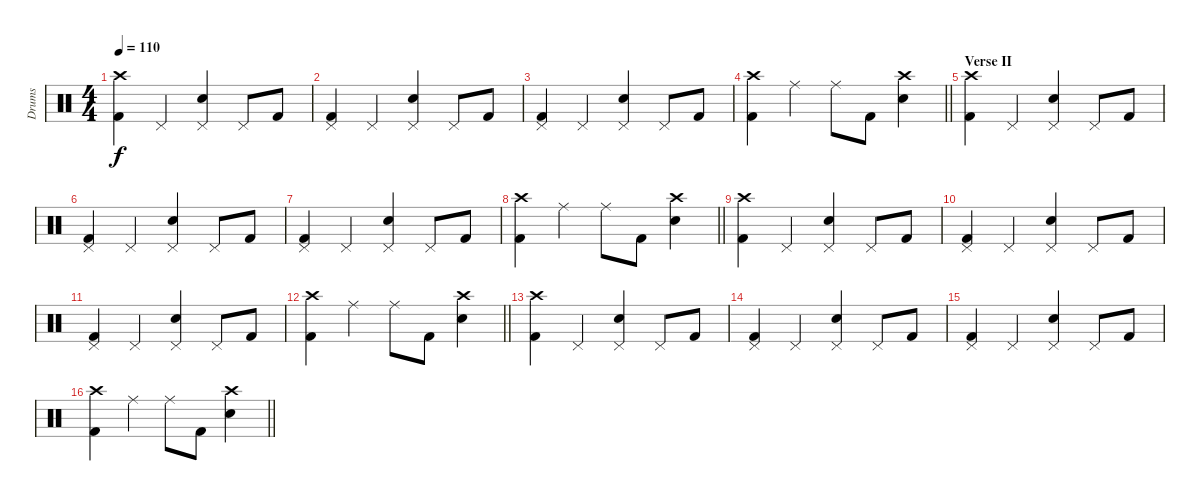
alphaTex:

\track ("Drums" "Drums") {instrument percussion}
\staff {score}
\articulation defaults
\ts (4 4)
\section ("" "")
\tempo 110
\clef neutral
\ks c
("Crash high (hit)" "Kick (hit) 2").4{dy f} "Pedal Hi-Hat (hit)".4 ("Pedal Hi-Hat (hit)" "Snare (hit) 2").4 "Pedal Hi-Hat (hit)".8 "Kick (hit) 2".8 |
("Pedal Hi-Hat (hit)" "Kick (hit) 2").4 "Pedal Hi-Hat (hit)".4 ("Pedal Hi-Hat (hit)" "Snare (hit) 2").4 "Pedal Hi-Hat (hit)".8 "Kick (hit) 2".8 |
("Pedal Hi-Hat (hit)" "Kick (hit) 2").4 "Pedal Hi-Hat (hit)".4 ("Pedal Hi-Hat (hit)" "Snare (hit) 2").4 "Pedal Hi-Hat (hit)".8 "Kick (hit) 2".8 |
\barLineRight lightlight
("Crash high (hit)" "Kick (hit) 2").4 "Ride (middle)".4 "Ride (middle)".8 "Kick (hit) 2".8 ("Crash high (hit)" "Snare (hit) 2").4 |
\section ("" "Verse II")
("Crash high (hit)" "Kick (hit) 2").4 "Pedal Hi-Hat (hit)".4 ("Pedal Hi-Hat (hit)" "Snare (hit) 2").4 "Pedal Hi-Hat (hit)".8 "Kick (hit) 2".8 |
("Pedal Hi-Hat (hit)" "Kick (hit) 2").4 "Pedal Hi-Hat (hit)".4 ("Pedal Hi-Hat (hit)" "Snare (hit) 2").4 "Pedal Hi-Hat (hit)".8 "Kick (hit) 2".8 |
("Pedal Hi-Hat (hit)" "Kick (hit) 2").4 "Pedal Hi-Hat (hit)".4 ("Pedal Hi-Hat (hit)" "Snare (hit) 2").4 "Pedal Hi-Hat (hit)".8 "Kick (hit) 2".8 |
\barLineRight lightlight
("Crash high (hit)" "Kick (hit) 2").4 "Ride (middle)".4 "Ride (middle)".8 "Kick (hit) 2".8 ("Crash high (hit)" "Snare (hit) 2").4 |
\section ("" "")
("Crash high (hit)" "Kick (hit) 2").4 "Pedal Hi-Hat (hit)".4 ("Pedal Hi-Hat (hit)" "Snare (hit) 2").4 "Pedal Hi-Hat (hit)".8 "Kick (hit) 2".8 |
("Pedal Hi-Hat (hit)" "Kick (hit) 2").4 "Pedal Hi-Hat (hit)".4 ("Pedal Hi-Hat (hit)" "Snare (hit) 2").4 "Pedal Hi-Hat (hit)".8 "Kick (hit) 2".8 |
("Pedal Hi-Hat (hit)" "Kick (hit) 2").4 "Pedal Hi-Hat (hit)".4 ("Pedal Hi-Hat (hit)" "Snare (hit) 2").4 "Pedal Hi-Hat (hit)".8 "Kick (hit) 2".8 |
\barLineRight lightlight
("Crash high (hit)" "Kick (hit) 2").4 "Ride (middle)".4 "Ride (middle)".8 "Kick (hit) 2".8 ("Crash high (hit)" "Snare (hit) 2").4 |
\section ("" "")
("Crash high (hit)" "Kick (hit) 2").4 "Pedal Hi-Hat (hit)".4 ("Pedal Hi-Hat (hit)" "Snare (hit) 2").4 "Pedal Hi-Hat (hit)".8 "Kick (hit) 2".8 |
("Pedal Hi-Hat (hit)" "Kick (hit) 2").4 "Pedal Hi-Hat (hit)".4 ("Pedal Hi-Hat (hit)" "Snare (hit) 2").4 "Pedal Hi-Hat (hit)".8 "Kick (hit) 2".8 |
("Pedal Hi-Hat (hit)" "Kick (hit) 2").4 "Pedal Hi-Hat (hit)".4 ("Pedal Hi-Hat (hit)" "Snare (hit) 2").4 "Pedal Hi-Hat (hit)".8 "Kick (hit) 2".8 |
\barLineRight lightlight
("Crash high (hit)" "Kick (hit) 2").4 "Ride (middle)".4 "Ride (middle)".8 "Kick (hit) 2".8 ("Crash high (hit)" "Snare (hit) 2").4
